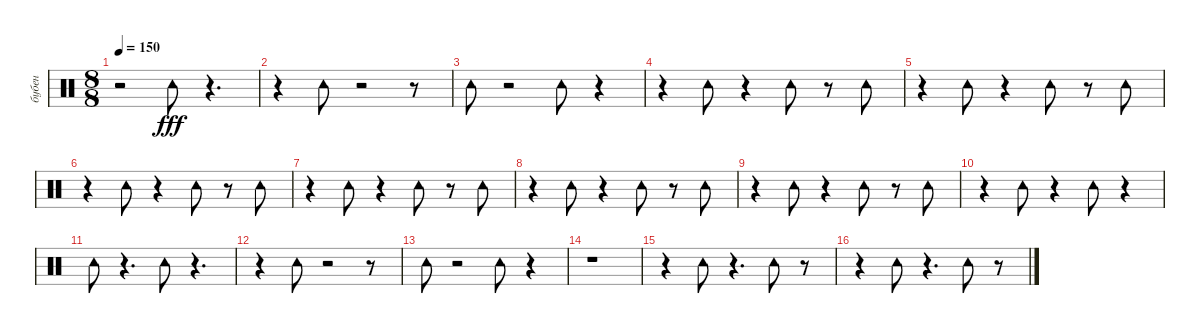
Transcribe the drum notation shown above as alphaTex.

\track ("бубен" "бубен") {instrument percussion}
\staff {score}
\articulation defaults
\ts (8 8)
\tempo 150
\clef neutral
\ks c
r.2{dy fff} "Tambourine (hit)".8 r.4{d} |
r.4 "Tambourine (hit)".8 r.2 r.8 |
"Tambourine (hit)".8 r.2 "Tambourine (hit)".8 r.4 |
r.4 "Tambourine (hit)".8 r.4 "Tambourine (hit)".8 r.8 "Tambourine (hit)".8 |
r.4 "Tambourine (hit)".8 r.4 "Tambourine (hit)".8 r.8 "Tambourine (hit)".8 |
r.4 "Tambourine (hit)".8 r.4 "Tambourine (hit)".8 r.8 "Tambourine (hit)".8 |
r.4 "Tambourine (hit)".8 r.4 "Tambourine (hit)".8 r.8 "Tambourine (hit)".8 |
r.4 "Tambourine (hit)".8 r.4 "Tambourine (hit)".8 r.8 "Tambourine (hit)".8 |
r.4 "Tambourine (hit)".8 r.4 "Tambourine (hit)".8 r.8 "Tambourine (hit)".8 |
r.4 "Tambourine (hit)".8 r.4 "Tambourine (hit)".8 r.4 |
"Tambourine (hit)".8 r.4{d} "Tambourine (hit)".8 r.4{d} |
r.4 "Tambourine (hit)".8 r.2 r.8 |
"Tambourine (hit)".8 r.2 "Tambourine (hit)".8 r.4 |
r.1 |
r.4 "Tambourine (hit)".8 r.4{d} "Tambourine (hit)".8 r.8 |
r.4 "Tambourine (hit)".8 r.4{d} "Tambourine (hit)".8 r.8
